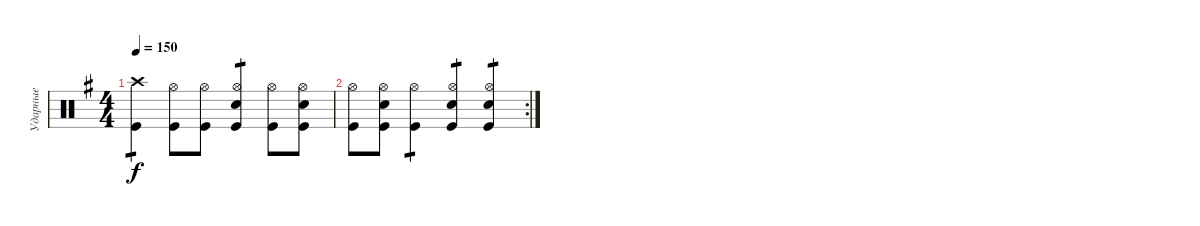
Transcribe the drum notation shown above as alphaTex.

\track ("Ударные" "Ударные") {instrument percussion}
\staff {score}
\articulation defaults
\ts (4 4)
\tempo 150
\clef neutral
\ks g
("Crash high (hit)" "Kick (hit)").4{tp 1 dy f} ("Hi-Hat (open)" "Kick (hit)").8 ("Hi-Hat (open)" "Kick (hit)").8 ("Hi-Hat (open)" "Snare (hit) 2" "Kick (hit)").4{tp 1} ("Hi-Hat (open)" "Kick (hit)").8 ("Hi-Hat (open)" "Snare (hit) 2" "Kick (hit)").8 |
\rc 2
("Hi-Hat (open)" "Kick (hit)").8 ("Hi-Hat (open)" "Snare (hit) 2" "Kick (hit)").8 ("Hi-Hat (open)" "Kick (hit)").4{tp 1} ("Hi-Hat (open)" "Snare (hit) 2" "Kick (hit)").4{tp 1} ("Hi-Hat (open)" "Snare (hit) 2" "Kick (hit)").4{tp 1}
